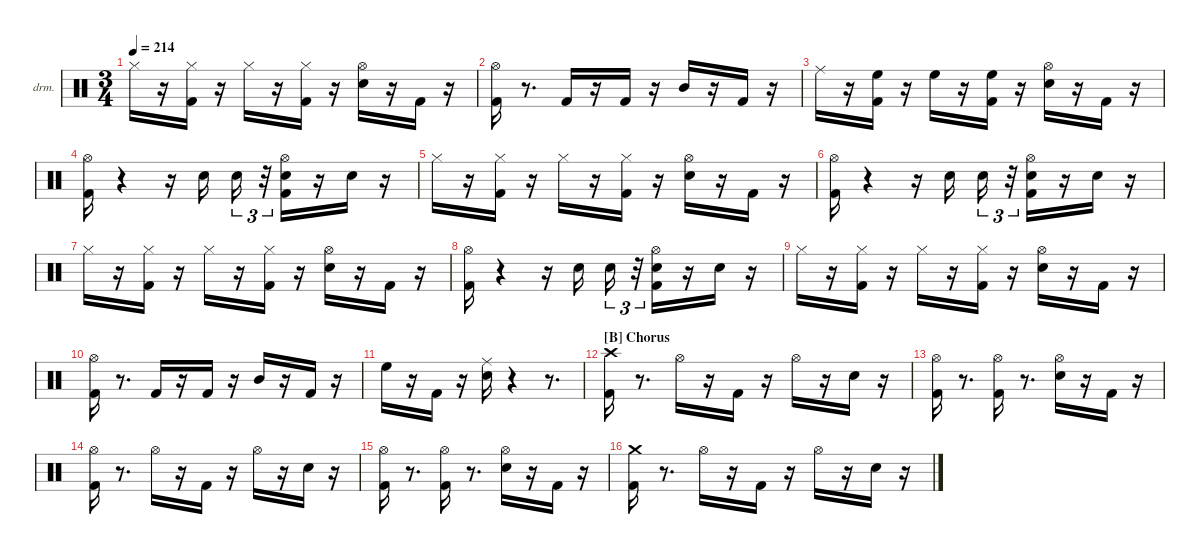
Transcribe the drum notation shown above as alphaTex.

\hideDynamics
\bracketExtendMode nobrackets
\firstSystemTrackNameOrientation horizontal
\otherSystemsTrackNameOrientation horizontal
\track ("EZdrummer 3" "drm.") {instrument percussion}
\staff {score}
\articulation defaults
\ts (3 4)
\tempo 214
\clef neutral
\ks aminor "Hi-Hat (closed)"{acc #}.16{dy f}
r.16 ("Kick (hit) 2" "Hi-Hat (closed)"{acc #}).16{dy ff} r.16 "Hi-Hat (closed)"{acc #}.16{dy pp} r.16 ("Kick (hit) 2" "Hi-Hat (closed)"{acc #}).16{dy f} r.16 ("Snare (hit) 2" "Hi-Hat (open)"{acc #}).16{dy ff} r.16 "Kick (hit) 2".16{dy mf} r.16 |
("Kick (hit) 2" "Hi-Hat (open)"{acc #}).16{dy ff} r.8{d} "Kick (hit) 2".16 r.16 "Kick (hit) 2".16 r.16 "Mid Tom (hit)".16 r.16 "Kick (hit) 2".16 r.16 |
"Ride (middle)"{acc #}.16 r.16 ("Kick (hit) 2" "High Floor Tom (hit)").16 r.16 "High Floor Tom (hit)".16{dy fff} r.16 ("Kick (hit) 2" "High Floor Tom (hit)").16{dy f} r.16 ("Snare (hit) 2" "Hi-Hat (open)"{acc #}).16{dy ff} r.16 "Kick (hit) 2".16{dy mf} r.16 |
("Kick (hit) 2" "Hi-Hat (open)"{acc #}).16{dy ff} r.4 r.16 "Snare (hit) 2".16{dy f} "Snare (hit) 2".16{tu (3 2) dy p} r.32{tu (3 2)} ("Kick (hit) 2" "Snare (hit) 2" "Hi-Hat (open)"{acc #}).16{dy f} r.16 "Snare (hit) 2".16{dy fff} r.16 |
"Hi-Hat (closed)"{acc #}.16{dy f} r.16 ("Kick (hit) 2" "Hi-Hat (closed)"{acc #}).16{dy ff} r.16 "Hi-Hat (closed)"{acc #}.16{dy pp} r.16 ("Kick (hit) 2" "Hi-Hat (closed)"{acc #}).16{dy f} r.16 ("Snare (hit) 2" "Hi-Hat (open)"{acc #}).16{dy ff} r.16 "Kick (hit) 2".16{dy mf} r.16 |
("Kick (hit) 2" "Hi-Hat (open)"{acc #}).16{dy ff} r.4 r.16 "Snare (hit) 2".16{dy f} "Snare (hit) 2".16{tu (3 2) dy p} r.32{tu (3 2)} ("Kick (hit) 2" "Snare (hit) 2" "Hi-Hat (open)"{acc #}).16{dy f} r.16 "Snare (hit) 2".16{dy fff} r.16 |
"Hi-Hat (closed)"{acc #}.16{dy f} r.16 ("Kick (hit) 2" "Hi-Hat (closed)"{acc #}).16{dy ff} r.16 "Hi-Hat (closed)"{acc #}.16{dy pp} r.16 ("Kick (hit) 2" "Hi-Hat (closed)"{acc #}).16{dy f} r.16 ("Snare (hit) 2" "Hi-Hat (open)"{acc #}).16{dy ff} r.16 "Kick (hit) 2".16{dy mf} r.16 |
("Kick (hit) 2" "Hi-Hat (open)"{acc #}).16{dy fff} r.4 r.16 "Snare (hit) 2".16{dy f} "Snare (hit) 2".16{tu (3 2) dy p} r.32{tu (3 2)} ("Hi-Hat (open)"{acc #} "Kick (hit) 2" "Snare (hit) 2").16{dy ff} r.16 "Snare (hit) 2".16{dy fff} r.16 |
"Hi-Hat (closed)"{acc #}.16{dy f} r.16 ("Kick (hit) 2" "Hi-Hat (closed)"{acc #}).16{dy ff} r.16 "Hi-Hat (closed)"{acc #}.16{dy pp} r.16 ("Kick (hit) 2" "Hi-Hat (closed)"{acc #}).16{dy f} r.16 ("Snare (hit) 2" "Hi-Hat (open)"{acc #}).16{dy ff} r.16 "Kick (hit) 2".16{dy mf} r.16 |
("Kick (hit) 2" "Hi-Hat (open)"{acc #}).16{dy fff} r.8{d} "Kick (hit) 2".16{dy ff} r.16 "Kick (hit) 2".16 r.16 "Mid Tom (hit)".16 r.16 "Kick (hit) 2".16 r.16 |
"High Floor Tom (hit)".16 r.16 "Kick (hit) 2".16 r.16 ("Snare (hit) 2" "Ride (middle)"{acc #}).16{dy fff} r.4 r.8{d} |
\section ("B" "Chorus")
("Kick (hit) 2" "Crash high (hit)"{acc #}).16 r.8{d} "Hi-Hat (open)"{acc #}.16{dy mf} r.16 "Kick (hit) 2".16{dy ff} r.16 "Hi-Hat (open)"{acc #}.16{dy f} r.16 "Snare (hit) 2".16{dy ff} r.16 |
("Kick (hit) 2" "Hi-Hat (open)"{acc #}).16{dy fff} r.8{d} ("Kick (hit) 2" "Hi-Hat (open)"{acc #}).16{dy f} r.8{d} ("Snare (hit) 2" "Hi-Hat (open)"{acc #}).16 r.16 "Kick (hit) 2".16{dy mp} r.16 |
("Kick (hit) 2" "Hi-Hat (open)"{acc #}).16{dy fff} r.8{d} "Hi-Hat (open)"{acc #}.16{dy mf} r.16 "Kick (hit) 2".16{dy ff} r.16 "Hi-Hat (open)"{acc #}.16{dy f} r.16 "Snare (hit) 2".16{dy ff} r.16 |
("Kick (hit) 2" "Hi-Hat (open)"{acc #}).16{dy fff} r.8{d} ("Kick (hit) 2" "Hi-Hat (open)"{acc #}).16{dy ff} r.8{d} ("Snare (hit) 2" "Hi-Hat (open)"{acc #}).16{dy f} r.16 "Kick (hit) 2".16{dy mp} r.16 |
("Kick (hit) 2" "Crash medium (hit)").16{dy fff} r.8{d} "Hi-Hat (open)"{acc #}.16{dy mf} r.16 "Kick (hit) 2".16{dy ff} r.16 "Hi-Hat (open)"{acc #}.16{dy f} r.16 "Snare (hit) 2".16{dy ff} r.16
